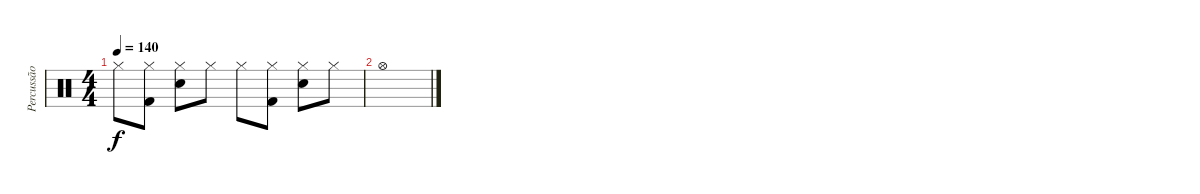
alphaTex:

\track ("Percussão" "Percussão") {instrument percussion}
\staff {score}
\articulation defaults
\ts (4 4)
\tempo 140
\clef neutral
\ks c "Hi-Hat (closed)".8{dy f}
("Kick (hit) 2" "Hi-Hat (closed)").8 ("Snare (hit) 2" "Hi-Hat (closed)").8 "Hi-Hat (closed)".8 "Hi-Hat (closed)".8 ("Kick (hit) 2" "Hi-Hat (closed)").8 ("Hi-Hat (closed)" "Snare (hit) 2").8 "Hi-Hat (closed)".8 |
"Hi-Hat (open)".1
